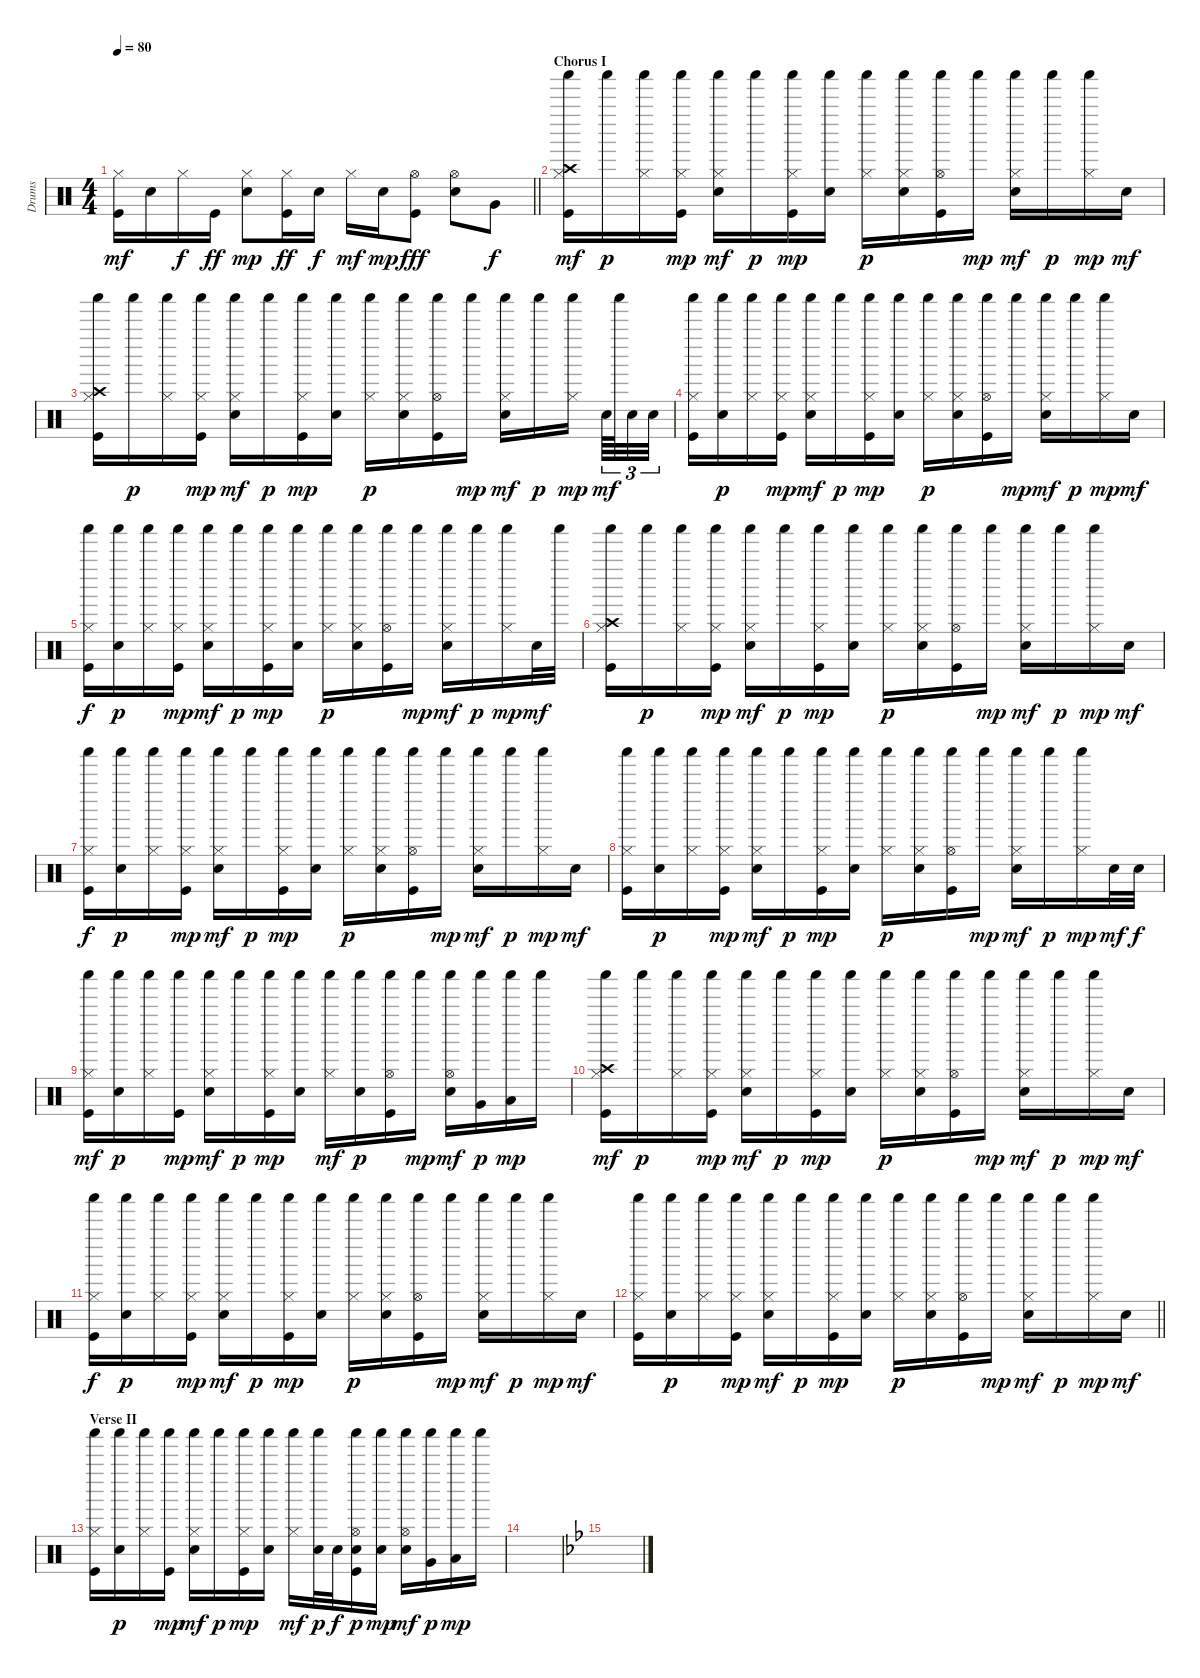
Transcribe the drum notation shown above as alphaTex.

\track ("Drums" "Drums") {instrument percussion}
\staff {score}
\articulation defaults
\ts (4 4)
\tempo 80
\clef neutral
\barLineRight lightlight
\ks c
("Kick (hit)" "Hi-Hat (closed)").16{dy mf} "Snare (hit) 2".16 "Hi-Hat (closed)".16{dy f} "Kick (hit)".16{dy ff} ("Snare (hit) 2" "Hi-Hat (closed)").8{dy mp} ("Kick (hit)" "Hi-Hat (closed)").16{dy ff} "Snare (hit) 2".16{dy f} "Hi-Hat (closed)".16{dy mf} "Snare (hit) 2".16{dy mp} ("Kick (hit)" "Hi-Hat (open)").8{dy fff} ("Snare (hit) 2" "Hi-Hat (open)").8 "Very Low Tom (hit)".8{dy f} |
\section ("" "Chorus I")
("Kick (hit)" "Crash high (hit)" "Hi-Hat (closed)" "Shaker (hit)").16{dy mf} "Shaker (hit)".16{dy p} ("Hi-Hat (closed)" "Shaker (hit)").16 ("Kick (hit)" "Hi-Hat (closed)" "Shaker (hit)").16{dy mp} ("Snare (hit) 2" "Hi-Hat (closed)" "Shaker (hit)").16{dy mf} "Shaker (hit)".16{dy p} ("Kick (hit)" "Hi-Hat (closed)" "Shaker (hit)").16{dy mp} ("Snare (hit) 2" "Shaker (hit)").16 ("Hi-Hat (closed)" "Shaker (hit)").16{dy p} ("Snare (hit) 2" "Hi-Hat (closed)" "Shaker (hit)").16 ("Kick (hit)" "Hi-Hat (open)" "Shaker (hit)").16 "Shaker (hit)".16{dy mp} ("Snare (hit) 2" "Hi-Hat (closed)" "Shaker (hit)").16{dy mf} "Shaker (hit)".16{dy p} ("Hi-Hat (closed)" "Shaker (hit)").16{dy mp} "Snare (hit) 2".16{dy mf} |
("Kick (hit)" "Crash high (hit)" "Hi-Hat (closed)" "Shaker (hit)").16 "Shaker (hit)".16{dy p} ("Hi-Hat (closed)" "Shaker (hit)").16 ("Kick (hit)" "Hi-Hat (closed)" "Shaker (hit)").16{dy mp} ("Snare (hit) 2" "Hi-Hat (closed)" "Shaker (hit)").16{dy mf} "Shaker (hit)".16{dy p} ("Kick (hit)" "Hi-Hat (closed)" "Shaker (hit)").16{dy mp} ("Snare (hit) 2" "Shaker (hit)").16 ("Hi-Hat (closed)" "Shaker (hit)").16{dy p} ("Snare (hit) 2" "Hi-Hat (closed)" "Shaker (hit)").16 ("Kick (hit)" "Hi-Hat (open)" "Shaker (hit)").16 "Shaker (hit)".16{dy mp} ("Snare (hit) 2" "Hi-Hat (closed)" "Shaker (hit)").16{dy mf} "Shaker (hit)".16{dy p} ("Hi-Hat (closed)" "Shaker (hit)").16{dy mp beam splitsecondary} "Snare (hit) 2".64{tu (3 2) dy mf} "Shaker (hit)".64{tu (3 2)} "Snare (hit) 2".32{tu (3 2)} "Snare (hit) 2".32{tu (3 2)} |
("Kick (hit)" "Hi-Hat (closed)" "Shaker (hit)").16 ("Snare (hit) 2" "Shaker (hit)").16{dy p} ("Hi-Hat (closed)" "Shaker (hit)").16 ("Kick (hit)" "Hi-Hat (closed)" "Shaker (hit)").16{dy mp} ("Snare (hit) 2" "Hi-Hat (closed)" "Shaker (hit)").16{dy mf} "Shaker (hit)".16{dy p} ("Kick (hit)" "Hi-Hat (closed)" "Shaker (hit)").16{dy mp} ("Snare (hit) 2" "Shaker (hit)").16 ("Hi-Hat (closed)" "Shaker (hit)").16{dy p} ("Snare (hit) 2" "Hi-Hat (closed)" "Shaker (hit)").16 ("Kick (hit)" "Hi-Hat (open)" "Shaker (hit)").16 "Shaker (hit)".16{dy mp} ("Snare (hit) 2" "Hi-Hat (closed)" "Shaker (hit)").16{dy mf} "Shaker (hit)".16{dy p} ("Hi-Hat (closed)" "Shaker (hit)").16{dy mp} "Snare (hit) 2".16{dy mf} |
("Kick (hit)" "Hi-Hat (closed)" "Shaker (hit)").16{dy f} ("Snare (hit) 2" "Shaker (hit)").16{dy p} ("Hi-Hat (closed)" "Shaker (hit)").16 ("Kick (hit)" "Hi-Hat (closed)" "Shaker (hit)").16{dy mp} ("Snare (hit) 2" "Hi-Hat (closed)" "Shaker (hit)").16{dy mf} "Shaker (hit)".16{dy p} ("Kick (hit)" "Hi-Hat (closed)" "Shaker (hit)").16{dy mp} ("Snare (hit) 2" "Shaker (hit)").16 ("Hi-Hat (closed)" "Shaker (hit)").16{dy p} ("Snare (hit) 2" "Hi-Hat (closed)" "Shaker (hit)").16 ("Kick (hit)" "Hi-Hat (open)" "Shaker (hit)").16 "Shaker (hit)".16{dy mp} ("Snare (hit) 2" "Hi-Hat (closed)" "Shaker (hit)").16{dy mf} "Shaker (hit)".16{dy p} ("Hi-Hat (closed)" "Shaker (hit)").16{dy mp} "Snare (hit) 2".32{dy mf} "Shaker (hit)".32 |
("Kick (hit)" "Crash high (hit)" "Hi-Hat (closed)" "Shaker (hit)").16 "Shaker (hit)".16{dy p} ("Hi-Hat (closed)" "Shaker (hit)").16 ("Kick (hit)" "Hi-Hat (closed)" "Shaker (hit)").16{dy mp} ("Snare (hit) 2" "Hi-Hat (closed)" "Shaker (hit)").16{dy mf} "Shaker (hit)".16{dy p} ("Kick (hit)" "Hi-Hat (closed)" "Shaker (hit)").16{dy mp} ("Snare (hit) 2" "Shaker (hit)").16 ("Hi-Hat (closed)" "Shaker (hit)").16{dy p} ("Snare (hit) 2" "Hi-Hat (closed)" "Shaker (hit)").16 ("Kick (hit)" "Hi-Hat (open)" "Shaker (hit)").16 "Shaker (hit)".16{dy mp} ("Snare (hit) 2" "Hi-Hat (closed)" "Shaker (hit)").16{dy mf} "Shaker (hit)".16{dy p} ("Hi-Hat (closed)" "Shaker (hit)").16{dy mp} "Snare (hit) 2".16{dy mf} |
("Kick (hit)" "Hi-Hat (closed)" "Shaker (hit)").16{dy f} ("Snare (hit) 2" "Shaker (hit)").16{dy p} ("Hi-Hat (closed)" "Shaker (hit)").16 ("Kick (hit)" "Hi-Hat (closed)" "Shaker (hit)").16{dy mp} ("Snare (hit) 2" "Hi-Hat (closed)" "Shaker (hit)").16{dy mf} "Shaker (hit)".16{dy p} ("Kick (hit)" "Hi-Hat (closed)" "Shaker (hit)").16{dy mp} ("Snare (hit) 2" "Shaker (hit)").16 ("Hi-Hat (closed)" "Shaker (hit)").16{dy p} ("Snare (hit) 2" "Hi-Hat (closed)" "Shaker (hit)").16 ("Kick (hit)" "Hi-Hat (open)" "Shaker (hit)").16 "Shaker (hit)".16{dy mp} ("Snare (hit) 2" "Hi-Hat (closed)" "Shaker (hit)").16{dy mf} "Shaker (hit)".16{dy p} ("Hi-Hat (closed)" "Shaker (hit)").16{dy mp} "Snare (hit) 2".16{dy mf} |
("Kick (hit)" "Hi-Hat (closed)" "Shaker (hit)").16 ("Snare (hit) 2" "Shaker (hit)").16{dy p} ("Hi-Hat (closed)" "Shaker (hit)").16 ("Kick (hit)" "Hi-Hat (closed)" "Shaker (hit)").16{dy mp} ("Snare (hit) 2" "Hi-Hat (closed)" "Shaker (hit)").16{dy mf} "Shaker (hit)".16{dy p} ("Kick (hit)" "Hi-Hat (closed)" "Shaker (hit)").16{dy mp} ("Snare (hit) 2" "Shaker (hit)").16 ("Hi-Hat (closed)" "Shaker (hit)").16{dy p} ("Snare (hit) 2" "Hi-Hat (closed)" "Shaker (hit)").16 ("Kick (hit)" "Hi-Hat (open)" "Shaker (hit)").16 "Shaker (hit)".16{dy mp} ("Snare (hit) 2" "Hi-Hat (closed)" "Shaker (hit)").16{dy mf} "Shaker (hit)".16{dy p} ("Hi-Hat (closed)" "Shaker (hit)").16{dy mp} "Snare (hit) 2".32{dy mf} "Snare (hit) 2".32{dy f} |
("Kick (hit)" "Hi-Hat (closed)" "Shaker (hit)").16{dy mf} ("Snare (hit) 2" "Shaker (hit)").16{dy p} ("Hi-Hat (closed)" "Shaker (hit)").16 ("Kick (hit)" "Shaker (hit)").16{dy mp} ("Snare (hit) 2" "Hi-Hat (closed)" "Shaker (hit)").16{dy mf} "Shaker (hit)".16{dy p} ("Kick (hit)" "Hi-Hat (closed)" "Shaker (hit)").16{dy mp} ("Snare (hit) 2" "Shaker (hit)").16 ("Hi-Hat (closed)" "Shaker (hit)").16{dy mf} ("Snare (hit) 2" "Shaker (hit)").16{dy p} ("Kick (hit)" "Hi-Hat (open)" "Shaker (hit)").16 "Shaker (hit)".16{dy mp} ("Snare (hit) 2" "Hi-Hat (open)" "Shaker (hit)").16{dy mf} ("Very Low Tom (hit)" "Shaker (hit)").16{dy p} ("Low Floor Tom (hit)" "Shaker (hit)").16{dy mp} "Shaker (hit)".16 |
("Kick (hit)" "Crash high (hit)" "Hi-Hat (closed)" "Shaker (hit)").16{dy mf} "Shaker (hit)".16{dy p} ("Hi-Hat (closed)" "Shaker (hit)").16 ("Kick (hit)" "Hi-Hat (closed)" "Shaker (hit)").16{dy mp} ("Snare (hit) 2" "Hi-Hat (closed)" "Shaker (hit)").16{dy mf} "Shaker (hit)".16{dy p} ("Kick (hit)" "Hi-Hat (closed)" "Shaker (hit)").16{dy mp} ("Snare (hit) 2" "Shaker (hit)").16 ("Hi-Hat (closed)" "Shaker (hit)").16{dy p} ("Snare (hit) 2" "Hi-Hat (closed)" "Shaker (hit)").16 ("Kick (hit)" "Hi-Hat (open)" "Shaker (hit)").16 "Shaker (hit)".16{dy mp} ("Snare (hit) 2" "Hi-Hat (closed)" "Shaker (hit)").16{dy mf} "Shaker (hit)".16{dy p} ("Hi-Hat (closed)" "Shaker (hit)").16{dy mp} "Snare (hit) 2".16{dy mf} |
("Kick (hit)" "Hi-Hat (closed)" "Shaker (hit)").16{dy f} ("Snare (hit) 2" "Shaker (hit)").16{dy p} ("Hi-Hat (closed)" "Shaker (hit)").16 ("Kick (hit)" "Hi-Hat (closed)" "Shaker (hit)").16{dy mp} ("Snare (hit) 2" "Hi-Hat (closed)" "Shaker (hit)").16{dy mf} "Shaker (hit)".16{dy p} ("Kick (hit)" "Hi-Hat (closed)" "Shaker (hit)").16{dy mp} ("Snare (hit) 2" "Shaker (hit)").16 ("Hi-Hat (closed)" "Shaker (hit)").16{dy p} ("Snare (hit) 2" "Hi-Hat (closed)" "Shaker (hit)").16 ("Kick (hit)" "Hi-Hat (open)" "Shaker (hit)").16 "Shaker (hit)".16{dy mp} ("Snare (hit) 2" "Hi-Hat (closed)" "Shaker (hit)").16{dy mf} "Shaker (hit)".16{dy p} ("Hi-Hat (closed)" "Shaker (hit)").16{dy mp} "Snare (hit) 2".16{dy mf} |
\barLineRight lightlight
("Kick (hit)" "Hi-Hat (closed)" "Shaker (hit)").16 ("Snare (hit) 2" "Shaker (hit)").16{dy p} ("Hi-Hat (closed)" "Shaker (hit)").16 ("Kick (hit)" "Hi-Hat (closed)" "Shaker (hit)").16{dy mp} ("Snare (hit) 2" "Hi-Hat (closed)" "Shaker (hit)").16{dy mf} "Shaker (hit)".16{dy p} ("Kick (hit)" "Hi-Hat (closed)" "Shaker (hit)").16{dy mp} ("Snare (hit) 2" "Shaker (hit)").16 ("Hi-Hat (closed)" "Shaker (hit)").16{dy p} ("Snare (hit) 2" "Hi-Hat (closed)" "Shaker (hit)").16 ("Kick (hit)" "Hi-Hat (open)" "Shaker (hit)").16 "Shaker (hit)".16{dy mp} ("Snare (hit) 2" "Hi-Hat (closed)" "Shaker (hit)").16{dy mf} "Shaker (hit)".16{dy p} ("Hi-Hat (closed)" "Shaker (hit)").16{dy mp} "Snare (hit) 2".16{dy mf} |
\section ("" "Verse II")
("Kick (hit)" "Hi-Hat (closed)" "Shaker (hit)").16 ("Snare (hit) 2" "Shaker (hit)").16{dy p} ("Hi-Hat (closed)" "Shaker (hit)").16 ("Kick (hit)" "Shaker (hit)").16{dy mp} ("Snare (hit) 2" "Hi-Hat (closed)" "Shaker (hit)").16{dy mf} "Shaker (hit)".16{dy p} ("Kick (hit)" "Hi-Hat (closed)" "Shaker (hit)").16{dy mp} ("Snare (hit) 2" "Shaker (hit)").16 ("Hi-Hat (closed)" "Shaker (hit)").16{dy mf} ("Snare (hit) 2" "Shaker (hit)").32{dy p} "Snare (hit) 2".32{dy f} ("Kick (hit)" "Snare (hit) 2" "Hi-Hat (open)" "Shaker (hit)").16{dy p} ("Snare (hit) 2" "Shaker (hit)").16{dy mp} ("Snare (hit) 2" "Hi-Hat (open)" "Shaker (hit)").16{dy mf} ("Very Low Tom (hit)" "Shaker (hit)").16{dy p} ("Low Floor Tom (hit)" "Shaker (hit)").16{dy mp} "Shaker (hit)".16 |
|
\ks bb
